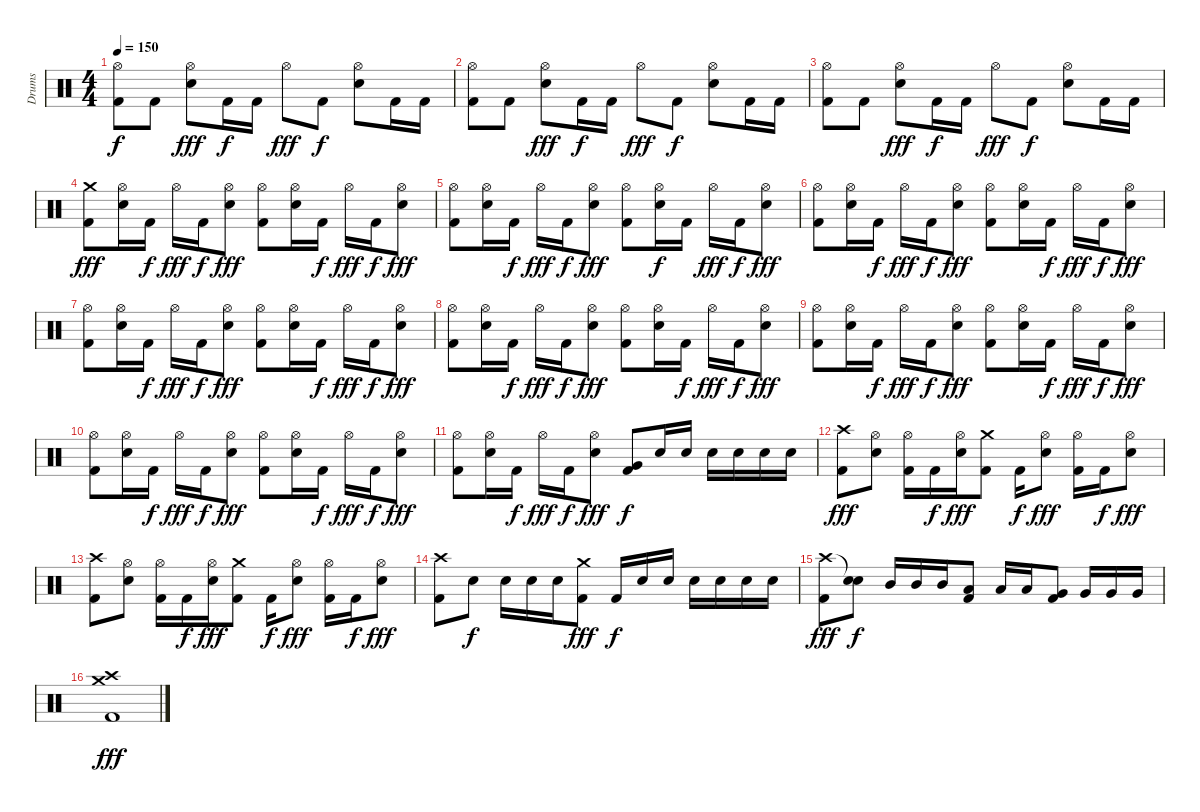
\track ("Drums" "Drums") {instrument percussion}
\staff {score}
\articulation defaults
\ts (4 4)
\tempo 150
\clef neutral
\ks c
("Hi-Hat (open)" "Kick (hit) 2").8{dy f} "Kick (hit) 2".8 ("Hi-Hat (open)" "Electric Snare (hit)").8{dy fff} "Kick (hit) 2".16{dy f} "Kick (hit) 2".16 "Hi-Hat (open)".8{dy fff} "Kick (hit) 2".8{dy f} ("Hi-Hat (open)" "Electric Snare (hit)").8 "Kick (hit) 2".16 "Kick (hit) 2".16 |
("Hi-Hat (open)" "Kick (hit) 2").8 "Kick (hit) 2".8 ("Hi-Hat (open)" "Electric Snare (hit)").8{dy fff} "Kick (hit) 2".16{dy f} "Kick (hit) 2".16 "Hi-Hat (open)".8{dy fff} "Kick (hit) 2".8{dy f} ("Hi-Hat (open)" "Electric Snare (hit)").8 "Kick (hit) 2".16 "Kick (hit) 2".16 |
("Hi-Hat (open)" "Kick (hit) 2").8 "Kick (hit) 2".8 ("Hi-Hat (open)" "Electric Snare (hit)").8{dy fff} "Kick (hit) 2".16{dy f} "Kick (hit) 2".16 "Hi-Hat (open)".8{dy fff} "Kick (hit) 2".8{dy f} ("Hi-Hat (open)" "Electric Snare (hit)").8 "Kick (hit) 2".16 "Kick (hit) 2".16 |
("Crash medium (hit)" "Kick (hit) 2").8{dy fff} ("Hi-Hat (open)" "Electric Snare (hit)").16 "Kick (hit) 2".16{dy f} "Hi-Hat (open)".16{dy fff} "Kick (hit) 2".16{dy f} ("Hi-Hat (open)" "Electric Snare (hit)").8{dy fff} ("Hi-Hat (open)" "Kick (hit) 2").8 ("Hi-Hat (open)" "Electric Snare (hit)").16 "Kick (hit) 2".16{dy f} "Hi-Hat (open)".16{dy fff} "Kick (hit) 2".16{dy f} ("Hi-Hat (open)" "Electric Snare (hit)").8{dy fff} |
("Hi-Hat (open)" "Kick (hit) 2").8 ("Hi-Hat (open)" "Electric Snare (hit)").16 "Kick (hit) 2".16{dy f} "Hi-Hat (open)".16{dy fff} "Kick (hit) 2".16{dy f} ("Hi-Hat (open)" "Electric Snare (hit)").8{dy fff} ("Hi-Hat (open)" "Kick (hit) 2").8 ("Hi-Hat (open)" "Electric Snare (hit)").16{dy f} "Kick (hit) 2".16 "Hi-Hat (open)".16{dy fff} "Kick (hit) 2".16{dy f} ("Hi-Hat (open)" "Electric Snare (hit)").8{dy fff} |
("Hi-Hat (open)" "Kick (hit) 2").8 ("Hi-Hat (open)" "Electric Snare (hit)").16 "Kick (hit) 2".16{dy f} "Hi-Hat (open)".16{dy fff} "Kick (hit) 2".16{dy f} ("Hi-Hat (open)" "Electric Snare (hit)").8{dy fff} ("Hi-Hat (open)" "Kick (hit) 2").8 ("Hi-Hat (open)" "Electric Snare (hit)").16 "Kick (hit) 2".16{dy f} "Hi-Hat (open)".16{dy fff} "Kick (hit) 2".16{dy f} ("Hi-Hat (open)" "Electric Snare (hit)").8{dy fff} |
("Hi-Hat (open)" "Kick (hit) 2").8 ("Hi-Hat (open)" "Electric Snare (hit)").16 "Kick (hit) 2".16{dy f} "Hi-Hat (open)".16{dy fff} "Kick (hit) 2".16{dy f} ("Hi-Hat (open)" "Electric Snare (hit)").8{dy fff} ("Hi-Hat (open)" "Kick (hit) 2").8 ("Hi-Hat (open)" "Electric Snare (hit)").16 "Kick (hit) 2".16{dy f} "Hi-Hat (open)".16{dy fff} "Kick (hit) 2".16{dy f} ("Hi-Hat (open)" "Electric Snare (hit)").8{dy fff} |
("Hi-Hat (open)" "Kick (hit) 2").8 ("Hi-Hat (open)" "Electric Snare (hit)").16 "Kick (hit) 2".16{dy f} "Hi-Hat (open)".16{dy fff} "Kick (hit) 2".16{dy f} ("Hi-Hat (open)" "Electric Snare (hit)").8{dy fff} ("Hi-Hat (open)" "Kick (hit) 2").8 ("Hi-Hat (open)" "Electric Snare (hit)").16 "Kick (hit) 2".16{dy f} "Hi-Hat (open)".16{dy fff} "Kick (hit) 2".16{dy f} ("Hi-Hat (open)" "Electric Snare (hit)").8{dy fff} |
("Hi-Hat (open)" "Kick (hit) 2").8 ("Hi-Hat (open)" "Electric Snare (hit)").16 "Kick (hit) 2".16{dy f} "Hi-Hat (open)".16{dy fff} "Kick (hit) 2".16{dy f} ("Hi-Hat (open)" "Electric Snare (hit)").8{dy fff} ("Hi-Hat (open)" "Kick (hit) 2").8 ("Hi-Hat (open)" "Electric Snare (hit)").16 "Kick (hit) 2".16{dy f} "Hi-Hat (open)".16{dy fff} "Kick (hit) 2".16{dy f} ("Hi-Hat (open)" "Electric Snare (hit)").8{dy fff} |
("Hi-Hat (open)" "Kick (hit) 2").8 ("Hi-Hat (open)" "Electric Snare (hit)").16 "Kick (hit) 2".16{dy f} "Hi-Hat (open)".16{dy fff} "Kick (hit) 2".16{dy f} ("Hi-Hat (open)" "Electric Snare (hit)").8{dy fff} ("Hi-Hat (open)" "Kick (hit) 2").8 ("Hi-Hat (open)" "Electric Snare (hit)").16 "Kick (hit) 2".16{dy f} "Hi-Hat (open)".16{dy fff} "Kick (hit) 2".16{dy f} ("Hi-Hat (open)" "Electric Snare (hit)").8{dy fff} |
("Hi-Hat (open)" "Kick (hit) 2").8 ("Hi-Hat (open)" "Electric Snare (hit)").16 "Kick (hit) 2".16{dy f} "Hi-Hat (open)".16{dy fff} "Kick (hit) 2".16{dy f} ("Hi-Hat (open)" "Electric Snare (hit)").8{dy fff} ("Very Low Tom (hit)" "Kick (hit) 2").8{dy f} "Electric Snare (hit)".16 "Electric Snare (hit)".16 "Electric Snare (hit)".16 "Electric Snare (hit)".16 "Electric Snare (hit)".16 "Electric Snare (hit)".16 |
("Crash high (hit)" "Kick (hit) 2").8{dy fff} ("Hi-Hat (open)" "Electric Snare (hit)").8 ("Hi-Hat (open)" "Kick (hit) 2").16 "Kick (hit) 2".16{dy f} ("Hi-Hat (open)" "Electric Snare (hit)").16{dy fff} ("Crash medium (hit)" "Kick (hit) 2").8 "Kick (hit) 2".16{dy f} ("Hi-Hat (open)" "Electric Snare (hit)").8{dy fff} ("Hi-Hat (open)" "Kick (hit) 2").16 "Kick (hit) 2".16{dy f} ("Hi-Hat (open)" "Electric Snare (hit)").8{dy fff} |
("Crash high (hit)" "Kick (hit) 2").8 ("Hi-Hat (open)" "Electric Snare (hit)").8 ("Hi-Hat (open)" "Kick (hit) 2").16 "Kick (hit) 2".16{dy f} ("Hi-Hat (open)" "Electric Snare (hit)").16{dy fff} ("Crash medium (hit)" "Kick (hit) 2").8 "Kick (hit) 2".16{dy f} ("Hi-Hat (open)" "Electric Snare (hit)").8{dy fff} ("Hi-Hat (open)" "Kick (hit) 2").16 "Kick (hit) 2".16{dy f} ("Hi-Hat (open)" "Electric Snare (hit)").8{dy fff} |
("Crash high (hit)" "Kick (hit) 2").8 "Electric Snare (hit)".8{dy f} "Electric Snare (hit)".16 "Electric Snare (hit)".16 "Electric Snare (hit)".16 ("Crash medium (hit)" "Kick (hit) 2").8{dy fff} "Kick (hit) 2".16{dy f} "Electric Snare (hit)".16 "Electric Snare (hit)".16 "Electric Snare (hit)".16 "Electric Snare (hit)".16 "Electric Snare (hit)".16 "Electric Snare (hit)".16 |
("Crash high (hit)" "Kick (hit) 2").8{dy fff} ("Electric Snare (hit)"{t} "Electric Snare (hit)").8{dy f} "Mid Tom (hit)".16 "Mid Tom (hit)".16 "Mid Tom (hit)".16 ("Low Tom (hit)" "Kick (hit) 2").8 "Low Tom (hit)".16 "Low Tom (hit)".16 ("Very Low Tom (hit)" "Kick (hit) 2").8 "Very Low Tom (hit)".16 "Very Low Tom (hit)".16 "Very Low Tom (hit)".16 |
("Crash medium (hit)" "Crash high (hit)" "Kick (hit) 2").1{dy fff}
